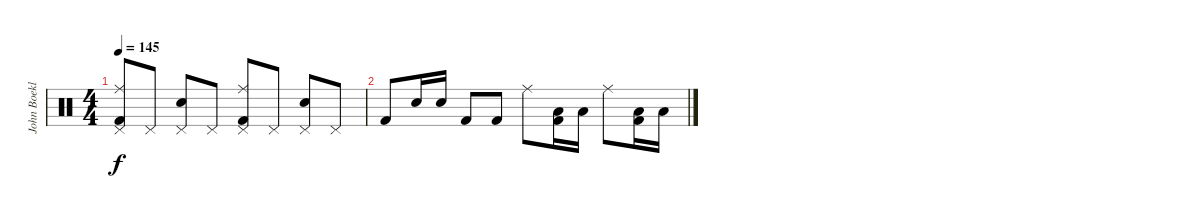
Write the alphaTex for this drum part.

\track ("John Boeklin" "John Boekl") {instrument percussion}
\staff {score}
\articulation defaults
\ts (4 4)
\tempo 145
\clef neutral
\ks c
("Pedal Hi-Hat (hit)" "Ride (middle)" "Kick (hit) 2").8{dy f} "Pedal Hi-Hat (hit)".8 ("Pedal Hi-Hat (hit)" "Electric Snare (hit)").8 "Pedal Hi-Hat (hit)".8 ("Pedal Hi-Hat (hit)" "Ride (middle)" "Kick (hit) 2").8 "Pedal Hi-Hat (hit)".8 ("Pedal Hi-Hat (hit)" "Electric Snare (hit)").8 "Pedal Hi-Hat (hit)".8 |
"Kick (hit) 2".8 "Electric Snare (hit)".16 "Electric Snare (hit)".16 "Kick (hit) 2".8 "Kick (hit) 2".8 "Ride (middle)".8 ("Low Floor Tom (hit)" "Kick (hit) 2").16 "Low Floor Tom (hit)".16 "Ride (middle)".8 ("Low Floor Tom (hit)" "Kick (hit) 2").16 "Low Floor Tom (hit)".16
